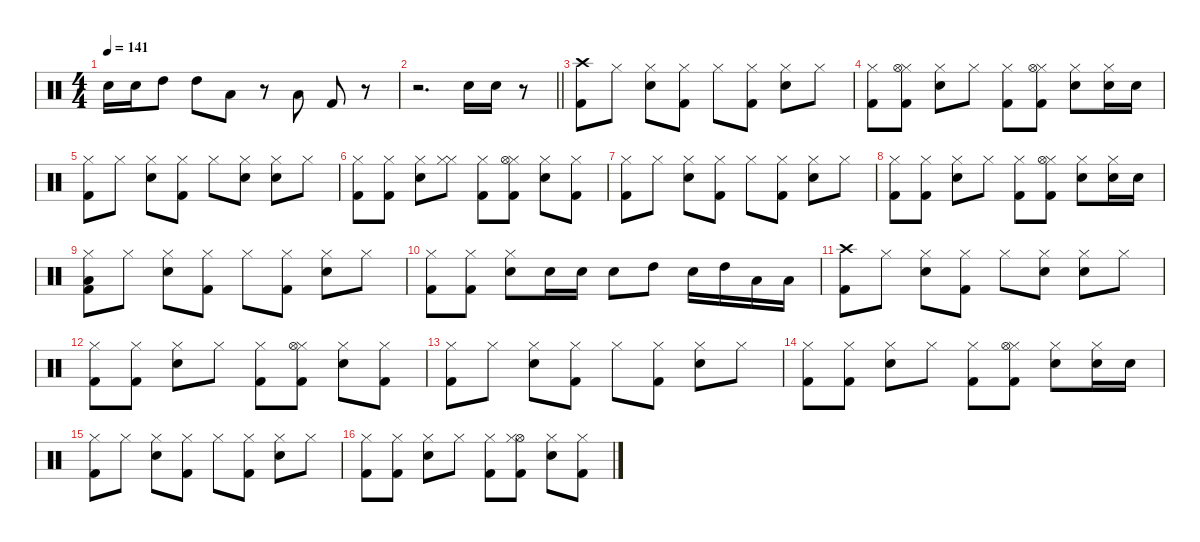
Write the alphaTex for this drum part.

\defaultSystemsLayout 4
\hideDynamics
\bracketExtendMode nobrackets
\singleTrackTrackNamePolicy hidden
\multiTrackTrackNamePolicy hidden
\otherSystemsTrackNameOrientation horizontal
\track ("Drum" "drm.") {instrument percussion}
\staff {score}
\articulation defaults
\ts (4 4)
\tempo 141
\clef neutral
\ks c "Snare (hit) 2".16{dy fff beam Down} "Snare (hit) 2".16{beam Down} "High Tom (hit)".8{beam Down} "High Tom (hit)".8{beam Down} "Low Tom (hit)".8{beam Down}
r.8{beam Down} "Low Floor Tom (hit)".8{beam Up} "Kick (hit) 2".8{beam Up} r.8{beam Up} |
\barLineRight lightlight
r.2{d beam Down} "Snare (hit) 2".16{beam Down} "Snare (hit) 2".16{beam Down} r.8{beam Down} |
("Crash high (hit)" "Kick (hit) 2").8{beam Down} "Hi-Hat (closed)".8{dy f beam Down} ("Hi-Hat (closed)" "Snare (hit) 2").8{dy fff beam Down} ("Hi-Hat (closed)" "Kick (hit) 2").8{beam Down} "Hi-Hat (closed)".8{beam Down} ("Kick (hit) 2" "Hi-Hat (closed)").8{beam Down} ("Snare (hit) 2" "Hi-Hat (closed)").8{beam Down} "Hi-Hat (closed)".8{dy f beam Down} |
("Hi-Hat (closed)" "Kick (hit) 2").8{dy fff beam Down} ("Hi-Hat (closed)" "Kick (hit) 2" "Hi-Hat (open)").8{beam Down} ("Hi-Hat (closed)" "Snare (hit) 2").8{beam Down} "Hi-Hat (closed)".8{dy f beam Down} ("Hi-Hat (closed)" "Kick (hit) 2").8{dy fff beam Down} ("Hi-Hat (closed)" "Kick (hit) 2" "Hi-Hat (open)").8{beam Down} ("Hi-Hat (closed)" "Snare (hit) 2").8{beam Down} ("Hi-Hat (closed)" "Snare (hit) 2").16{dy f beam Down} "Snare (hit) 2".16{beam Down} |
("Hi-Hat (closed)" "Kick (hit) 2").8{dy fff beam Down} "Hi-Hat (closed)".8{dy f beam Down} ("Hi-Hat (closed)" "Snare (hit) 2").8{dy fff beam Down} ("Hi-Hat (closed)" "Kick (hit) 2").8{beam Down} "Hi-Hat (closed)".8{beam Down} ("Hi-Hat (closed)" "Snare (hit) 2").8{beam Down} ("Hi-Hat (closed)" "Snare (hit) 2").8{beam Down} "Hi-Hat (closed)".8{dy f beam Down} |
("Kick (hit) 2" "Hi-Hat (closed)").8{dy fff beam Down} ("Kick (hit) 2" "Hi-Hat (closed)").8{beam Down} ("Snare (hit) 2" "Hi-Hat (closed)").8{beam Down} ("Hi-Hat (closed)" "Hi-Hat (closed)").8{dy f beam Down} ("Kick (hit) 2" "Hi-Hat (closed)").8{dy fff beam Down} ("Kick (hit) 2" "Hi-Hat (closed)" "Hi-Hat (open)").8{beam Down} ("Snare (hit) 2" "Hi-Hat (closed)").8{beam Down} ("Kick (hit) 2" "Hi-Hat (closed)").8{beam Down} |
("Kick (hit) 2" "Hi-Hat (closed)").8{beam Down} "Hi-Hat (closed)".8{dy f beam Down} ("Snare (hit) 2" "Hi-Hat (closed)").8{dy fff beam Down} ("Kick (hit) 2" "Hi-Hat (closed)").8{beam Down} "Hi-Hat (closed)".8{beam Down} ("Kick (hit) 2" "Hi-Hat (closed)").8{beam Down} ("Snare (hit) 2" "Hi-Hat (closed)").8{beam Down} "Hi-Hat (closed)".8{dy f beam Down} |
("Kick (hit) 2" "Hi-Hat (closed)").8{dy fff beam Down} ("Kick (hit) 2" "Hi-Hat (closed)").8{beam Down} ("Snare (hit) 2" "Hi-Hat (closed)").8{beam Down} "Hi-Hat (closed)".8{dy f beam Down} ("Kick (hit) 2" "Hi-Hat (closed)").8{dy fff beam Down} ("Kick (hit) 2" "Hi-Hat (closed)" "Hi-Hat (open)").8{beam Down} ("Snare (hit) 2" "Hi-Hat (closed)").8{beam Down} ("Snare (hit) 2" "Hi-Hat (closed)").16{dy f beam Down} "Snare (hit) 2".16{dy fff beam Down} |
("Hi-Hat (closed)" "Kick (hit) 2" "Low Floor Tom (hit)").8{dy mp beam Down} "Hi-Hat (closed)".8{dy f beam Down} ("Hi-Hat (closed)" "Snare (hit) 2").8{dy fff beam Down} ("Hi-Hat (closed)" "Kick (hit) 2").8{dy f beam Down} "Hi-Hat (closed)".8{dy fff beam Down} ("Hi-Hat (closed)" "Kick (hit) 2").8{beam Down} ("Hi-Hat (closed)" "Snare (hit) 2").8{beam Down} "Hi-Hat (closed)".8{dy f beam Down} |
("Kick (hit) 2" "Hi-Hat (closed)").8{dy fff beam Down} ("Kick (hit) 2" "Hi-Hat (closed)").8{beam Down} ("Snare (hit) 2" "Hi-Hat (closed)").8{beam Down} "Snare (hit) 2".16{beam Down} "Snare (hit) 2".16{beam Down} "Snare (hit) 2".8{beam Down} "High Tom (hit)".8{beam Down} "Snare (hit) 2".16{beam Down} "High Tom (hit)".16{beam Down} "Low Tom (hit)".16{beam Down} "Low Floor Tom (hit)".16{beam Down} |
("Crash high (hit)" "Kick (hit) 2").8{beam Down} "Hi-Hat (closed)".8{dy f beam Down} ("Hi-Hat (closed)" "Snare (hit) 2").8{dy fff beam Down} ("Hi-Hat (closed)" "Kick (hit) 2").8{beam Down} "Hi-Hat (closed)".8{beam Down} ("Hi-Hat (closed)" "Snare (hit) 2").8{beam Down} ("Hi-Hat (closed)" "Snare (hit) 2").8{beam Down} "Hi-Hat (closed)".8{dy f beam Down} |
("Hi-Hat (closed)" "Kick (hit) 2").8{dy fff beam Down} ("Hi-Hat (closed)" "Kick (hit) 2").8{beam Down} ("Hi-Hat (closed)" "Snare (hit) 2").8{beam Down} "Hi-Hat (closed)".8{dy f beam Down} ("Hi-Hat (closed)" "Kick (hit) 2").8{dy fff beam Down} ("Hi-Hat (closed)" "Kick (hit) 2" "Hi-Hat (open)").8{beam Down} ("Hi-Hat (closed)" "Snare (hit) 2").8{beam Down} ("Hi-Hat (closed)" "Kick (hit) 2").8{dy f beam Down} |
("Hi-Hat (closed)" "Kick (hit) 2").8{dy fff beam Down} "Hi-Hat (closed)".8{dy f beam Down} ("Hi-Hat (closed)" "Snare (hit) 2").8{dy fff beam Down} ("Hi-Hat (closed)" "Kick (hit) 2").8{dy f beam Down} "Hi-Hat (closed)".8{dy fff beam Down} ("Hi-Hat (closed)" "Kick (hit) 2").8{beam Down} ("Hi-Hat (closed)" "Snare (hit) 2").8{beam Down} "Hi-Hat (closed)".8{dy f beam Down} |
("Kick (hit) 2" "Hi-Hat (closed)").8{dy fff beam Down} ("Kick (hit) 2" "Hi-Hat (closed)").8{beam Down} ("Snare (hit) 2" "Hi-Hat (closed)").8{beam Down} "Hi-Hat (closed)".8{dy f beam Down} ("Kick (hit) 2" "Hi-Hat (closed)").8{dy fff beam Down} ("Kick (hit) 2" "Hi-Hat (closed)" "Hi-Hat (open)").8{beam Down} ("Snare (hit) 2" "Hi-Hat (closed)").8{beam Down} ("Snare (hit) 2" "Hi-Hat (closed)").16{beam Down} "Snare (hit) 2".16{beam Down} |
("Hi-Hat (closed)" "Kick (hit) 2").8{beam Down} "Hi-Hat (closed)".8{dy f beam Down} ("Hi-Hat (closed)" "Snare (hit) 2").8{dy fff beam Down} ("Hi-Hat (closed)" "Kick (hit) 2").8{beam Down} "Hi-Hat (closed)".8{beam Down} ("Hi-Hat (closed)" "Kick (hit) 2").8{dy f beam Down} ("Hi-Hat (closed)" "Snare (hit) 2").8{dy fff beam Down} "Hi-Hat (closed)".8{dy f beam Down} |
("Kick (hit) 2" "Hi-Hat (closed)").8{dy fff beam Down} ("Kick (hit) 2" "Hi-Hat (closed)").8{beam Down} ("Snare (hit) 2" "Hi-Hat (closed)").8{beam Down} "Hi-Hat (closed)".8{dy f beam Down} ("Hi-Hat (closed)" "Kick (hit) 2").8{dy fff beam Down} ("Hi-Hat (open)" "Hi-Hat (closed)" "Kick (hit) 2").8{dy f beam Down} ("Snare (hit) 2" "Hi-Hat (closed)").8{dy fff beam Down} ("Kick (hit) 2" "Hi-Hat (closed)").8{beam Down}
